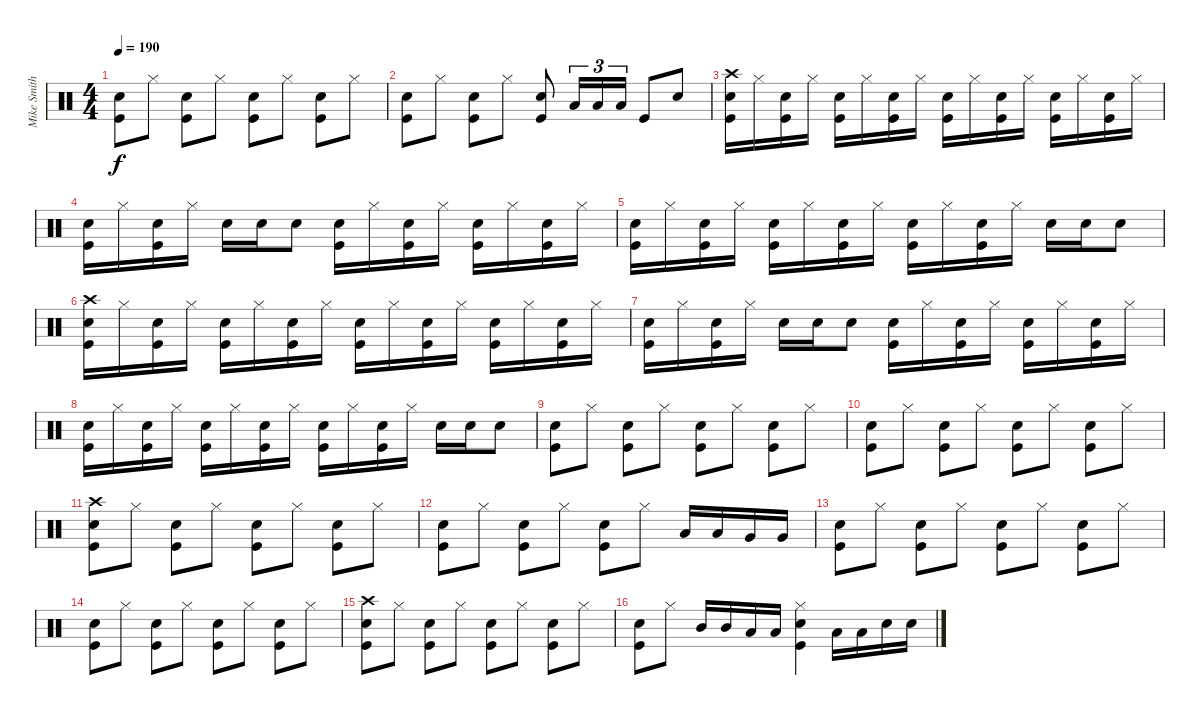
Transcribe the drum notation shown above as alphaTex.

\track ("Mike Smith" "Mike Smith") {instrument percussion}
\staff
\articulation defaults
\ts (4 4)
\tempo 190
\clef neutral
\ks c
("Snare (hit) 2" "Kick (hit)").8{dy f} "Hi-Hat (closed)".8 ("Snare (hit) 2" "Kick (hit)").8 "Hi-Hat (closed)".8 ("Snare (hit) 2" "Kick (hit)").8 "Hi-Hat (closed)".8 ("Snare (hit) 2" "Kick (hit)").8 "Hi-Hat (closed)".8 |
("Snare (hit) 2" "Kick (hit)").8 "Hi-Hat (closed)".8 ("Snare (hit) 2" "Kick (hit)").8 "Hi-Hat (closed)".8 ("Snare (hit) 2" "Kick (hit)").8 "Low Floor Tom (hit)".16{tu (3 2)} "Low Floor Tom (hit)".16{tu (3 2)} "Low Floor Tom (hit)".16{tu (3 2)} "Kick (hit)".8 "Snare (hit) 2".8 |
("Crash high (hit)" "Snare (hit) 2" "Kick (hit)").16 "Hi-Hat (closed)".16 ("Snare (hit) 2" "Kick (hit)").16 "Hi-Hat (closed)".16 ("Snare (hit) 2" "Kick (hit)").16 "Hi-Hat (closed)".16 ("Snare (hit) 2" "Kick (hit)").16 "Hi-Hat (closed)".16 ("Snare (hit) 2" "Kick (hit)").16 "Hi-Hat (closed)".16 ("Snare (hit) 2" "Kick (hit)").16 "Hi-Hat (closed)".16 ("Snare (hit) 2" "Kick (hit)").16 "Hi-Hat (closed)".16 ("Snare (hit) 2" "Kick (hit)").16 "Hi-Hat (closed)".16 |
("Snare (hit) 2" "Kick (hit)").16 "Hi-Hat (closed)".16 ("Snare (hit) 2" "Kick (hit)").16 "Hi-Hat (closed)".16 "Snare (hit) 2".16 "Snare (hit) 2".16 "Snare (hit) 2".8 ("Snare (hit) 2" "Kick (hit)").16 "Hi-Hat (closed)".16 ("Snare (hit) 2" "Kick (hit)").16 "Hi-Hat (closed)".16 ("Snare (hit) 2" "Kick (hit)").16 "Hi-Hat (closed)".16 ("Snare (hit) 2" "Kick (hit)").16 "Hi-Hat (closed)".16 |
("Snare (hit) 2" "Kick (hit)").16 "Hi-Hat (closed)".16 ("Snare (hit) 2" "Kick (hit)").16 "Hi-Hat (closed)".16 ("Snare (hit) 2" "Kick (hit)").16 "Hi-Hat (closed)".16 ("Snare (hit) 2" "Kick (hit)").16 "Hi-Hat (closed)".16 ("Snare (hit) 2" "Kick (hit)").16 "Hi-Hat (closed)".16 ("Snare (hit) 2" "Kick (hit)").16 "Hi-Hat (closed)".16 "Snare (hit) 2".16 "Snare (hit) 2".16 "Snare (hit) 2".8 |
("Crash high (hit)" "Snare (hit) 2" "Kick (hit)").16 "Hi-Hat (closed)".16 ("Snare (hit) 2" "Kick (hit)").16 "Hi-Hat (closed)".16 ("Snare (hit) 2" "Kick (hit)").16 "Hi-Hat (closed)".16 ("Snare (hit) 2" "Kick (hit)").16 "Hi-Hat (closed)".16 ("Snare (hit) 2" "Kick (hit)").16 "Hi-Hat (closed)".16 ("Snare (hit) 2" "Kick (hit)").16 "Hi-Hat (closed)".16 ("Snare (hit) 2" "Kick (hit)").16 "Hi-Hat (closed)".16 ("Snare (hit) 2" "Kick (hit)").16 "Hi-Hat (closed)".16 |
("Snare (hit) 2" "Kick (hit)").16 "Hi-Hat (closed)".16 ("Snare (hit) 2" "Kick (hit)").16 "Hi-Hat (closed)".16 "Snare (hit) 2".16 "Snare (hit) 2".16 "Snare (hit) 2".8 ("Snare (hit) 2" "Kick (hit)").16 "Hi-Hat (closed)".16 ("Snare (hit) 2" "Kick (hit)").16 "Hi-Hat (closed)".16 ("Snare (hit) 2" "Kick (hit)").16 "Hi-Hat (closed)".16 ("Snare (hit) 2" "Kick (hit)").16 "Hi-Hat (closed)".16 |
("Snare (hit) 2" "Kick (hit)").16 "Hi-Hat (closed)".16 ("Snare (hit) 2" "Kick (hit)").16 "Hi-Hat (closed)".16 ("Snare (hit) 2" "Kick (hit)").16 "Hi-Hat (closed)".16 ("Snare (hit) 2" "Kick (hit)").16 "Hi-Hat (closed)".16 ("Snare (hit) 2" "Kick (hit)").16 "Hi-Hat (closed)".16 ("Snare (hit) 2" "Kick (hit)").16 "Hi-Hat (closed)".16 "Snare (hit) 2".16 "Snare (hit) 2".16 "Snare (hit) 2".8 |
("Snare (hit) 2" "Kick (hit)").8 "Hi-Hat (closed)".8 ("Snare (hit) 2" "Kick (hit)").8 "Hi-Hat (closed)".8 ("Snare (hit) 2" "Kick (hit)").8 "Hi-Hat (closed)".8 ("Snare (hit) 2" "Kick (hit)").8 "Hi-Hat (closed)".8 |
("Snare (hit) 2" "Kick (hit)").8 "Hi-Hat (closed)".8 ("Snare (hit) 2" "Kick (hit)").8 "Hi-Hat (closed)".8 ("Snare (hit) 2" "Kick (hit)").8 "Hi-Hat (closed)".8 ("Snare (hit) 2" "Kick (hit)").8 "Hi-Hat (closed)".8 |
("Crash high (hit)" "Snare (hit) 2" "Kick (hit)").8 "Hi-Hat (closed)".8 ("Snare (hit) 2" "Kick (hit)").8 "Hi-Hat (closed)".8 ("Snare (hit) 2" "Kick (hit)").8 "Hi-Hat (closed)".8 ("Snare (hit) 2" "Kick (hit)").8 "Hi-Hat (closed)".8 |
("Snare (hit) 2" "Kick (hit)").8 "Hi-Hat (closed)".8 ("Snare (hit) 2" "Kick (hit)").8 "Hi-Hat (closed)".8 ("Snare (hit) 2" "Kick (hit)").8 "Hi-Hat (closed)".8 "Low Tom (hit)".16 "Low Tom (hit)".16 "Very Low Tom (hit)".16 "Very Low Tom (hit)".16 |
("Snare (hit) 2" "Kick (hit)").8 "Hi-Hat (closed)".8 ("Snare (hit) 2" "Kick (hit)").8 "Hi-Hat (closed)".8 ("Snare (hit) 2" "Kick (hit)").8 "Hi-Hat (closed)".8 ("Snare (hit) 2" "Kick (hit)").8 "Hi-Hat (closed)".8 |
("Snare (hit) 2" "Kick (hit)").8 "Hi-Hat (closed)".8 ("Snare (hit) 2" "Kick (hit)").8 "Hi-Hat (closed)".8 ("Snare (hit) 2" "Kick (hit)").8 "Hi-Hat (closed)".8 ("Snare (hit) 2" "Kick (hit)").8 "Hi-Hat (closed)".8 |
("Crash high (hit)" "Snare (hit) 2" "Kick (hit)").8 "Hi-Hat (closed)".8 ("Snare (hit) 2" "Kick (hit)").8 "Hi-Hat (closed)".8 ("Snare (hit) 2" "Kick (hit)").8 "Hi-Hat (closed)".8 ("Snare (hit) 2" "Kick (hit)").8 "Hi-Hat (closed)".8 |
("Snare (hit) 2" "Kick (hit)").8 "Hi-Hat (closed)".8 "Mid Tom (hit)".16 "Mid Tom (hit)".16 "Low Tom (hit)".16 "Low Tom (hit)".16 ("Hi-Hat (closed)" "Snare (hit) 2" "Kick (hit)").4 "Low Tom (hit)".16 "Low Tom (hit)".16 "Snare (hit) 2".16 "Snare (hit) 2".16
